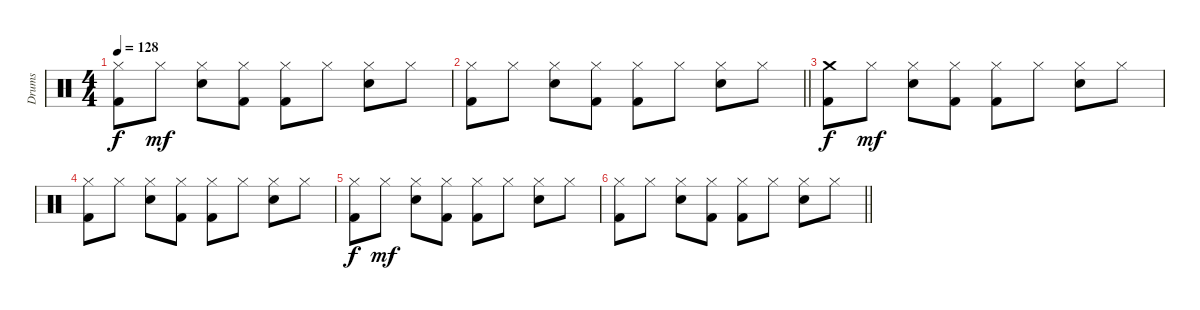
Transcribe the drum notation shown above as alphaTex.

\track ("Drums" "Drums") {instrument percussion}
\staff {score}
\articulation defaults
\ts (4 4)
\tempo 128
\clef neutral
\ks c
("Hi-Hat (closed)" "Kick (hit) 2").8{dy f} "Hi-Hat (closed)".8{dy mf} ("Hi-Hat (closed)" "Snare (hit) 2").8 ("Hi-Hat (closed)" "Kick (hit) 2").8 ("Hi-Hat (closed)" "Kick (hit) 2").8 "Hi-Hat (closed)".8 ("Hi-Hat (closed)" "Snare (hit) 2").8 "Hi-Hat (closed)".8 |
\barLineRight lightlight
("Hi-Hat (closed)" "Kick (hit) 2").8 "Hi-Hat (closed)".8 ("Hi-Hat (closed)" "Snare (hit) 2").8 ("Hi-Hat (closed)" "Kick (hit) 2").8 ("Hi-Hat (closed)" "Kick (hit) 2").8 "Hi-Hat (closed)".8 ("Hi-Hat (closed)" "Snare (hit) 2").8 "Hi-Hat (closed)".8 |
("Crash medium (hit)" "Kick (hit) 2").8{dy f} "Hi-Hat (closed)".8{dy mf} ("Hi-Hat (closed)" "Snare (hit) 2").8 ("Hi-Hat (closed)" "Kick (hit) 2").8 ("Hi-Hat (closed)" "Kick (hit) 2").8 "Hi-Hat (closed)".8 ("Hi-Hat (closed)" "Snare (hit) 2").8 "Hi-Hat (closed)".8 |
("Hi-Hat (closed)" "Kick (hit) 2").8 "Hi-Hat (closed)".8 ("Hi-Hat (closed)" "Snare (hit) 2").8 ("Hi-Hat (closed)" "Kick (hit) 2").8 ("Hi-Hat (closed)" "Kick (hit) 2").8 "Hi-Hat (closed)".8 ("Hi-Hat (closed)" "Snare (hit) 2").8 "Hi-Hat (closed)".8 |
("Hi-Hat (closed)" "Kick (hit) 2").8{dy f} "Hi-Hat (closed)".8{dy mf} ("Hi-Hat (closed)" "Snare (hit) 2").8 ("Hi-Hat (closed)" "Kick (hit) 2").8 ("Hi-Hat (closed)" "Kick (hit) 2").8 "Hi-Hat (closed)".8 ("Hi-Hat (closed)" "Snare (hit) 2").8 "Hi-Hat (closed)".8 |
\barLineRight lightlight
("Hi-Hat (closed)" "Kick (hit) 2").8 "Hi-Hat (closed)".8 ("Hi-Hat (closed)" "Snare (hit) 2").8 ("Hi-Hat (closed)" "Kick (hit) 2").8 ("Hi-Hat (closed)" "Kick (hit) 2").8 "Hi-Hat (closed)".8 ("Hi-Hat (closed)" "Snare (hit) 2").8 "Hi-Hat (closed)".8
